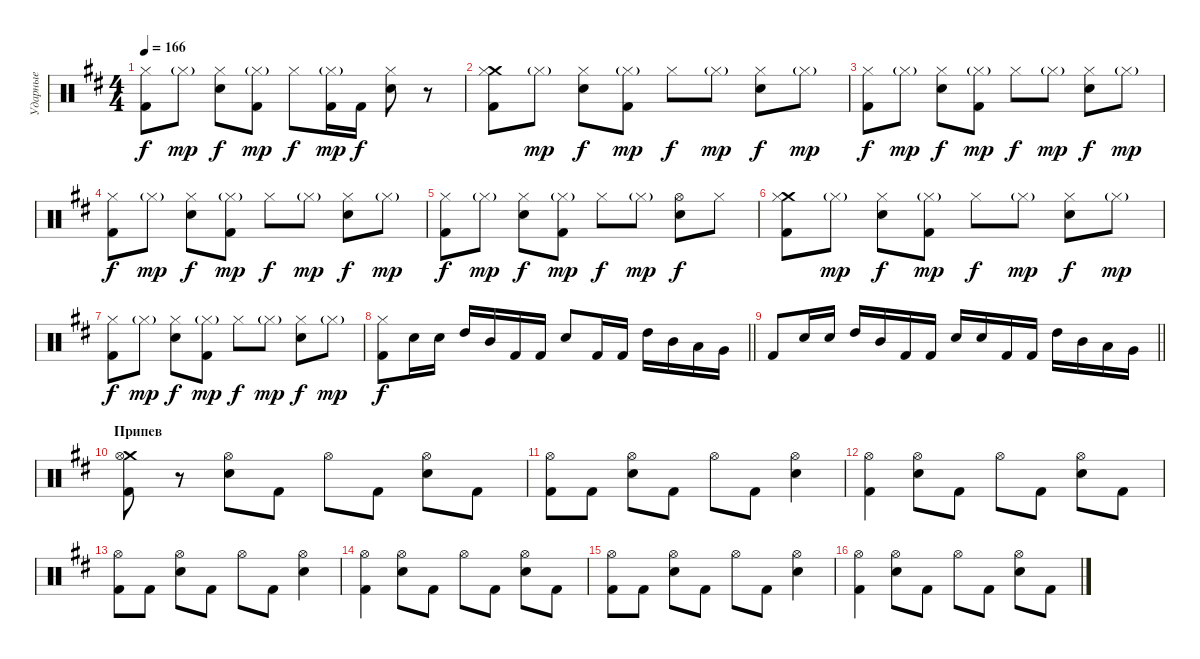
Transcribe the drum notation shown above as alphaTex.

\track ("Ударные" "Ударные") {instrument percussion}
\staff {score}
\articulation defaults
\ts (4 4)
\tempo 166
\clef neutral
\ks bminor
("Kick (hit) 2" "Hi-Hat (closed)").8{dy f} "Hi-Hat (closed)"{g}.8{dy mp} ("Electric Snare (hit)" "Hi-Hat (closed)").8{dy f} ("Kick (hit) 2" "Hi-Hat (closed)"{g}).8{dy mp} "Hi-Hat (closed)".8{dy f} ("Kick (hit) 2" "Hi-Hat (closed)"{g}).16{dy mp} "Kick (hit) 2".16{dy f} ("Electric Snare (hit)" "Hi-Hat (closed)").8 r.8 |
("Crash medium (hit)" "Kick (hit) 2" "Hi-Hat (closed)").8 "Hi-Hat (closed)"{g}.8{dy mp} ("Electric Snare (hit)" "Hi-Hat (closed)").8{dy f} ("Kick (hit) 2" "Hi-Hat (closed)"{g}).8{dy mp} "Hi-Hat (closed)".8{dy f} "Hi-Hat (closed)"{g}.8{dy mp} ("Electric Snare (hit)" "Hi-Hat (closed)").8{dy f} "Hi-Hat (closed)"{g}.8{dy mp} |
("Kick (hit) 2" "Hi-Hat (closed)").8{dy f} "Hi-Hat (closed)"{g}.8{dy mp} ("Electric Snare (hit)" "Hi-Hat (closed)").8{dy f} ("Kick (hit) 2" "Hi-Hat (closed)"{g}).8{dy mp} "Hi-Hat (closed)".8{dy f} "Hi-Hat (closed)"{g}.8{dy mp} ("Electric Snare (hit)" "Hi-Hat (closed)").8{dy f} "Hi-Hat (closed)"{g}.8{dy mp} |
("Kick (hit) 2" "Hi-Hat (closed)").8{dy f} "Hi-Hat (closed)"{g}.8{dy mp} ("Electric Snare (hit)" "Hi-Hat (closed)").8{dy f} ("Kick (hit) 2" "Hi-Hat (closed)"{g}).8{dy mp} "Hi-Hat (closed)".8{dy f} "Hi-Hat (closed)"{g}.8{dy mp} ("Electric Snare (hit)" "Hi-Hat (closed)").8{dy f} "Hi-Hat (closed)"{g}.8{dy mp} |
("Kick (hit) 2" "Hi-Hat (closed)").8{dy f} "Hi-Hat (closed)"{g}.8{dy mp} ("Electric Snare (hit)" "Hi-Hat (closed)").8{dy f} ("Kick (hit) 2" "Hi-Hat (closed)"{g}).8{dy mp} "Hi-Hat (closed)".8{dy f} "Hi-Hat (closed)"{g}.8{dy mp} ("Electric Snare (hit)" "Hi-Hat (open)").8{dy f} "Hi-Hat (closed)".8 |
("Crash medium (hit)" "Kick (hit) 2" "Hi-Hat (closed)").8 "Hi-Hat (closed)"{g}.8{dy mp} ("Electric Snare (hit)" "Hi-Hat (closed)").8{dy f} ("Kick (hit) 2" "Hi-Hat (closed)"{g}).8{dy mp} "Hi-Hat (closed)".8{dy f} "Hi-Hat (closed)"{g}.8{dy mp} ("Electric Snare (hit)" "Hi-Hat (closed)").8{dy f} "Hi-Hat (closed)"{g}.8{dy mp} |
("Kick (hit) 2" "Hi-Hat (closed)").8{dy f} "Hi-Hat (closed)"{g}.8{dy mp} ("Electric Snare (hit)" "Hi-Hat (closed)").8{dy f} ("Kick (hit) 2" "Hi-Hat (closed)"{g}).8{dy mp} "Hi-Hat (closed)".8{dy f} "Hi-Hat (closed)"{g}.8{dy mp} ("Electric Snare (hit)" "Hi-Hat (closed)").8{dy f} "Hi-Hat (closed)"{g}.8{dy mp} |
\barLineRight lightlight
("Kick (hit) 2" "Hi-Hat (closed)").8{dy f} "Electric Snare (hit)".16 "Electric Snare (hit)".16 "High Tom (hit)".16 "Mid Tom (hit)".16 "Kick (hit) 2".16 "Kick (hit) 2".16 "Electric Snare (hit)".8 "Kick (hit) 2".16 "Kick (hit) 2".16 "High Tom (hit)".16 "Mid Tom (hit)".16 "Low Tom (hit)".16 "Very Low Tom (hit)".16 |
\barLineRight lightlight "Kick (hit) 2".8 "Electric Snare (hit)".16 "Electric Snare (hit)".16 "High Tom (hit)".16 "Mid Tom (hit)".16 "Kick (hit) 2".16 "Kick (hit) 2".16 "Electric Snare (hit)".16 "Electric Snare (hit)".16 "Kick (hit) 2".16 "Kick (hit) 2".16 "High Tom (hit)".16 "Mid Tom (hit)".16 "Low Tom (hit)".16 "Very Low Tom (hit)".16
|
\section ("" "Припев")
("Crash medium (hit)" "Kick (hit) 2" "Hi-Hat (open)").8 r.8 ("Electric Snare (hit)" "Hi-Hat (open)").8 "Kick (hit) 2".8 "Hi-Hat (open)".8 "Kick (hit) 2".8 ("Electric Snare (hit)" "Hi-Hat (open)").8 "Kick (hit) 2".8 |
("Kick (hit) 2" "Hi-Hat (open)").8 "Kick (hit) 2".8 ("Electric Snare (hit)" "Hi-Hat (open)").8 "Kick (hit) 2".8 "Hi-Hat (open)".8 "Kick (hit) 2".8 ("Electric Snare (hit)" "Hi-Hat (open)").4 |
("Kick (hit) 2" "Hi-Hat (open)").4 ("Electric Snare (hit)" "Hi-Hat (open)").8 "Kick (hit) 2".8 "Hi-Hat (open)".8 "Kick (hit) 2".8 ("Electric Snare (hit)" "Hi-Hat (open)").8 "Kick (hit) 2".8 |
("Kick (hit) 2" "Hi-Hat (open)").8 "Kick (hit) 2".8 ("Electric Snare (hit)" "Hi-Hat (open)").8 "Kick (hit) 2".8 "Hi-Hat (open)".8 "Kick (hit) 2".8 ("Electric Snare (hit)" "Hi-Hat (open)").4 |
("Kick (hit) 2" "Hi-Hat (open)").4 ("Electric Snare (hit)" "Hi-Hat (open)").8 "Kick (hit) 2".8 "Hi-Hat (open)".8 "Kick (hit) 2".8 ("Electric Snare (hit)" "Hi-Hat (open)").8 "Kick (hit) 2".8 |
("Kick (hit) 2" "Hi-Hat (open)").8 "Kick (hit) 2".8 ("Electric Snare (hit)" "Hi-Hat (open)").8 "Kick (hit) 2".8 "Hi-Hat (open)".8 "Kick (hit) 2".8 ("Electric Snare (hit)" "Hi-Hat (open)").4 |
("Kick (hit) 2" "Hi-Hat (open)").4 ("Electric Snare (hit)" "Hi-Hat (open)").8 "Kick (hit) 2".8 "Hi-Hat (open)".8 "Kick (hit) 2".8 ("Electric Snare (hit)" "Hi-Hat (open)").8 "Kick (hit) 2".8
